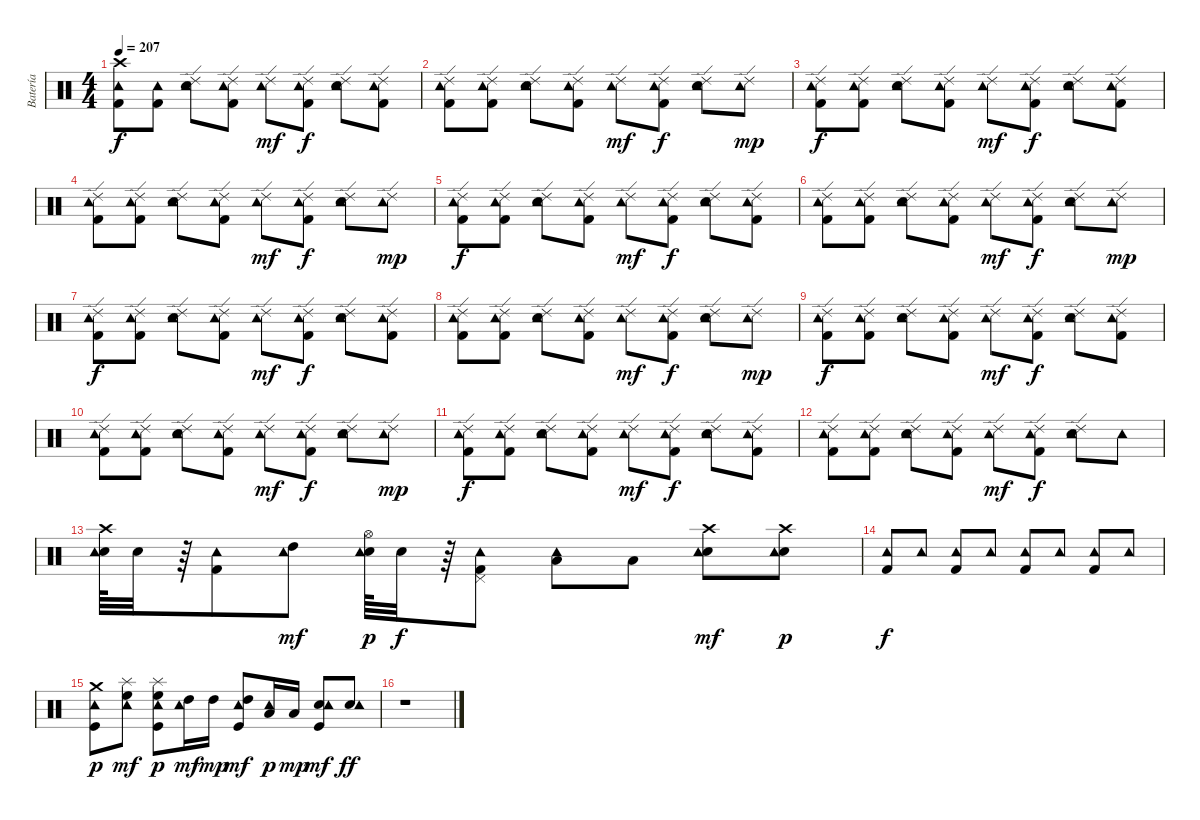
\track ("Batería" "Batería") {instrument percussion}
\staff {score}
\articulation defaults
\ts (4 4)
\tempo 207
\clef neutral
\ks c
("Crash high (hit)" "Tambourine (hit)" "Kick (hit) 2").8{dy f} ("Tambourine (hit)" "Kick (hit) 2").8 ("Ride (edge) 2" "Snare (hit) 2" "Tambourine (hit)").8 ("Ride (edge) 2" "Tambourine (hit)" "Kick (hit) 2").8 ("Ride (edge) 2" "Tambourine (hit)").8{dy mf} ("Ride (edge) 2" "Tambourine (hit)" "Kick (hit) 2").8{dy f} ("Ride (edge) 2" "Snare (hit) 2" "Tambourine (hit)").8 ("Ride (edge) 2" "Tambourine (hit)" "Kick (hit) 2").8 |
("Ride (edge) 2" "Tambourine (hit)" "Kick (hit) 2").8 ("Ride (edge) 2" "Tambourine (hit)" "Kick (hit) 2").8 ("Ride (edge) 2" "Snare (hit) 2" "Tambourine (hit)").8 ("Ride (edge) 2" "Tambourine (hit)" "Kick (hit) 2").8 ("Ride (edge) 2" "Tambourine (hit)").8{dy mf} ("Ride (edge) 2" "Tambourine (hit)" "Kick (hit) 2").8{dy f} ("Ride (edge) 2" "Snare (hit) 2" "Tambourine (hit)").8 ("Ride (edge) 2" "Tambourine (hit)").8{dy mp} |
("Ride (edge) 2" "Tambourine (hit)" "Kick (hit) 2").8{dy f} ("Ride (edge) 2" "Tambourine (hit)" "Kick (hit) 2").8 ("Ride (edge) 2" "Snare (hit) 2" "Tambourine (hit)").8 ("Ride (edge) 2" "Tambourine (hit)" "Kick (hit) 2").8 ("Ride (edge) 2" "Tambourine (hit)").8{dy mf} ("Ride (edge) 2" "Tambourine (hit)" "Kick (hit) 2").8{dy f} ("Ride (edge) 2" "Snare (hit) 2" "Tambourine (hit)").8 ("Ride (edge) 2" "Tambourine (hit)" "Kick (hit) 2").8 |
("Ride (edge) 2" "Tambourine (hit)" "Kick (hit) 2").8 ("Ride (edge) 2" "Tambourine (hit)" "Kick (hit) 2").8 ("Ride (edge) 2" "Snare (hit) 2" "Tambourine (hit)").8 ("Ride (edge) 2" "Tambourine (hit)" "Kick (hit) 2").8 ("Ride (edge) 2" "Tambourine (hit)").8{dy mf} ("Ride (edge) 2" "Tambourine (hit)" "Kick (hit) 2").8{dy f} ("Ride (edge) 2" "Snare (hit) 2" "Tambourine (hit)").8 ("Ride (edge) 2" "Tambourine (hit)").8{dy mp} |
("Ride (edge) 2" "Tambourine (hit)" "Kick (hit) 2").8{dy f} ("Ride (edge) 2" "Tambourine (hit)" "Kick (hit) 2").8 ("Ride (edge) 2" "Snare (hit) 2" "Tambourine (hit)").8 ("Ride (edge) 2" "Tambourine (hit)" "Kick (hit) 2").8 ("Ride (edge) 2" "Tambourine (hit)").8{dy mf} ("Ride (edge) 2" "Tambourine (hit)" "Kick (hit) 2").8{dy f} ("Ride (edge) 2" "Snare (hit) 2" "Tambourine (hit)").8 ("Ride (edge) 2" "Tambourine (hit)" "Kick (hit) 2").8 |
("Ride (edge) 2" "Tambourine (hit)" "Kick (hit) 2").8 ("Ride (edge) 2" "Tambourine (hit)" "Kick (hit) 2").8 ("Ride (edge) 2" "Snare (hit) 2" "Tambourine (hit)").8 ("Ride (edge) 2" "Tambourine (hit)" "Kick (hit) 2").8 ("Ride (edge) 2" "Tambourine (hit)").8{dy mf} ("Ride (edge) 2" "Tambourine (hit)" "Kick (hit) 2").8{dy f} ("Ride (edge) 2" "Snare (hit) 2" "Tambourine (hit)").8 ("Ride (edge) 2" "Tambourine (hit)").8{dy mp} |
("Ride (edge) 2" "Tambourine (hit)" "Kick (hit) 2").8{dy f} ("Ride (edge) 2" "Tambourine (hit)" "Kick (hit) 2").8 ("Ride (edge) 2" "Snare (hit) 2" "Tambourine (hit)").8 ("Ride (edge) 2" "Tambourine (hit)" "Kick (hit) 2").8 ("Ride (edge) 2" "Tambourine (hit)").8{dy mf} ("Ride (edge) 2" "Tambourine (hit)" "Kick (hit) 2").8{dy f} ("Ride (edge) 2" "Snare (hit) 2" "Tambourine (hit)").8 ("Ride (edge) 2" "Tambourine (hit)" "Kick (hit) 2").8 |
("Ride (edge) 2" "Tambourine (hit)" "Kick (hit) 2").8 ("Ride (edge) 2" "Tambourine (hit)" "Kick (hit) 2").8 ("Ride (edge) 2" "Snare (hit) 2" "Tambourine (hit)").8 ("Ride (edge) 2" "Tambourine (hit)" "Kick (hit) 2").8 ("Ride (edge) 2" "Tambourine (hit)").8{dy mf} ("Ride (edge) 2" "Tambourine (hit)" "Kick (hit) 2").8{dy f} ("Ride (edge) 2" "Snare (hit) 2" "Tambourine (hit)").8 ("Ride (edge) 2" "Tambourine (hit)").8{dy mp} |
("Ride (edge) 2" "Tambourine (hit)" "Kick (hit) 2").8{dy f} ("Ride (edge) 2" "Tambourine (hit)" "Kick (hit) 2").8 ("Ride (edge) 2" "Snare (hit) 2" "Tambourine (hit)").8 ("Ride (edge) 2" "Tambourine (hit)" "Kick (hit) 2").8 ("Ride (edge) 2" "Tambourine (hit)").8{dy mf} ("Ride (edge) 2" "Tambourine (hit)" "Kick (hit) 2").8{dy f} ("Ride (edge) 2" "Snare (hit) 2" "Tambourine (hit)").8 ("Ride (edge) 2" "Tambourine (hit)" "Kick (hit) 2").8 |
("Ride (edge) 2" "Tambourine (hit)" "Kick (hit) 2").8 ("Ride (edge) 2" "Tambourine (hit)" "Kick (hit) 2").8 ("Ride (edge) 2" "Snare (hit) 2" "Tambourine (hit)").8 ("Ride (edge) 2" "Tambourine (hit)" "Kick (hit) 2").8 ("Ride (edge) 2" "Tambourine (hit)").8{dy mf} ("Ride (edge) 2" "Tambourine (hit)" "Kick (hit) 2").8{dy f} ("Ride (edge) 2" "Snare (hit) 2" "Tambourine (hit)").8 ("Ride (edge) 2" "Tambourine (hit)").8{dy mp} |
("Ride (edge) 2" "Tambourine (hit)" "Kick (hit) 2").8{dy f} ("Ride (edge) 2" "Tambourine (hit)" "Kick (hit) 2").8 ("Ride (edge) 2" "Snare (hit) 2" "Tambourine (hit)").8 ("Ride (edge) 2" "Tambourine (hit)" "Kick (hit) 2").8 ("Ride (edge) 2" "Tambourine (hit)").8{dy mf} ("Ride (edge) 2" "Tambourine (hit)" "Kick (hit) 2").8{dy f} ("Ride (edge) 2" "Snare (hit) 2" "Tambourine (hit)").8 ("Ride (edge) 2" "Tambourine (hit)" "Kick (hit) 2").8 |
("Ride (edge) 2" "Tambourine (hit)" "Kick (hit) 2").8 ("Ride (edge) 2" "Tambourine (hit)" "Kick (hit) 2").8 ("Ride (edge) 2" "Snare (hit) 2" "Tambourine (hit)").8 ("Ride (edge) 2" "Tambourine (hit)" "Kick (hit) 2").8 ("Ride (edge) 2" "Tambourine (hit)").8{dy mf} ("Ride (edge) 2" "Tambourine (hit)" "Kick (hit) 2").8{dy f} ("Ride (edge) 2" "Snare (hit) 2" "Tambourine (hit)").8 "Tambourine (hit)".8 |
("Crash high (hit)" "Snare (hit) 2" "Tambourine (hit)").64 "Snare (hit) 2".32 r.64 ("Tambourine (hit)" "Kick (hit) 2").8 ("High Tom (hit)" "Tambourine (hit)").8{dy mf} ("Snare (hit) 2" "Tambourine (hit)" "Hi-Hat (open)").64{dy p} "Snare (hit) 2".32{dy f} r.64 ("Tambourine (hit)" "Pedal Hi-Hat (hit)" "Kick (hit) 2").8 ("Low Tom (hit)" "Tambourine (hit)").8 "Low Tom (hit)".8 ("Crash high (hit)" "Snare (hit) 2" "Tambourine (hit)").8{dy mf} ("Crash high (hit)" "Snare (hit) 2" "Tambourine (hit)").8{dy p} |
("Tambourine (hit)" "Kick (hit) 2").8{dy f} "Tambourine (hit)".8 ("Tambourine (hit)" "Kick (hit) 2").8 "Tambourine (hit)".8 ("Tambourine (hit)" "Kick (hit) 2").8 "Tambourine (hit)".8 ("Tambourine (hit)" "Kick (hit) 2").8 "Tambourine (hit)".8 |
("Kick (hit)" "Crash medium (hit)" "Tambourine (hit)").8{dy p} ("High Floor Tom (hit)" "Splash (hit)" "Tambourine (hit)").8{dy mf} ("High Floor Tom (hit)" "Kick (hit)" "Splash (hit)" "Tambourine (hit)").8{dy p} ("High Tom (hit)" "Tambourine (hit)").16{dy mf} "High Tom (hit)".16{dy mp} ("High Tom (hit)" "Kick (hit)" "Tambourine (hit)").8{dy mf} ("Low Tom (hit)" "Tambourine (hit)").16{dy p} "Low Tom (hit)".16{dy mp} ("Snare (hit) 2" "Kick (hit)" "Tambourine (hit)").8{dy mf} ("Snare (hit) 2" "Tambourine (hit)").8{dy ff} |
r.1
